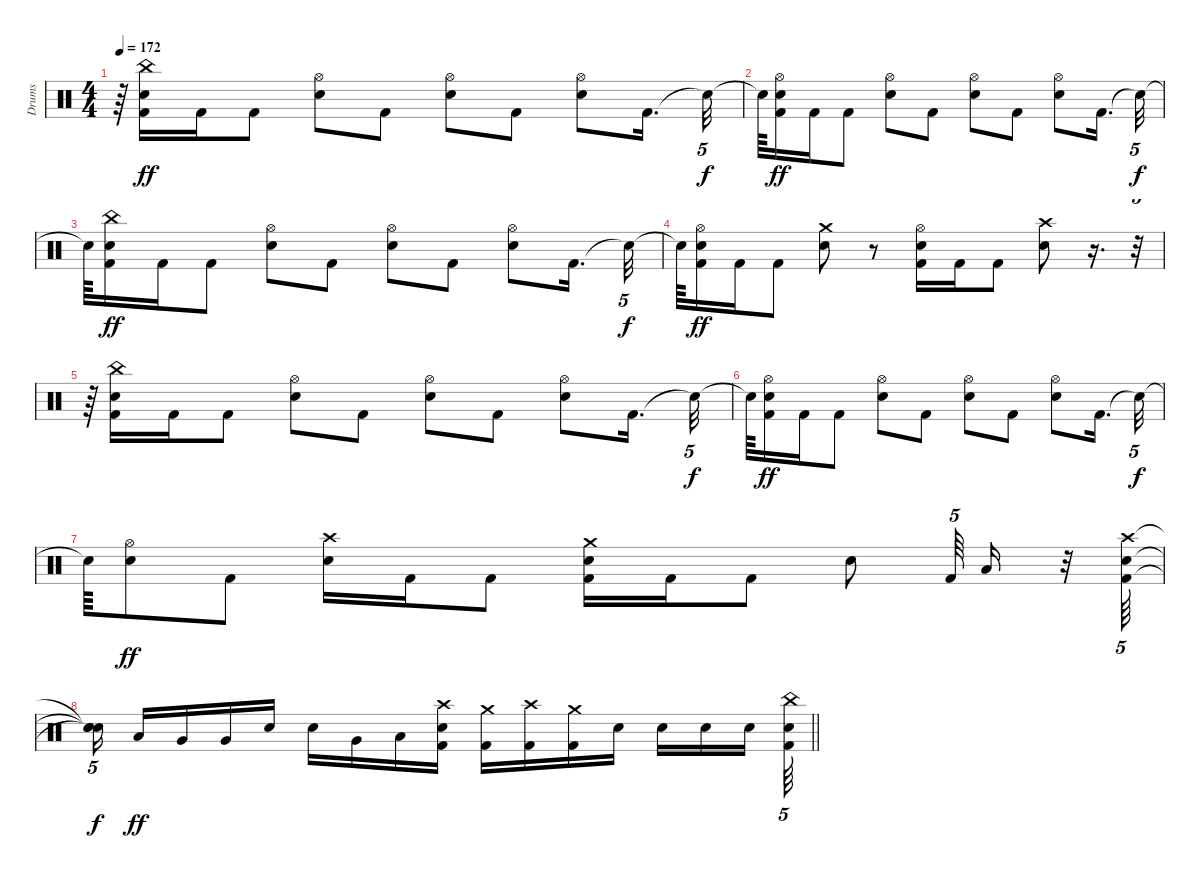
\track ("Drums" "Drums") {instrument percussion}
\staff {score}
\articulation defaults
\ts (4 4)
\tempo 172
\clef neutral
\ks c
r.64{dy f} ("China (hit)" "Kick (hit) 2" "Snare (hit) 2").16{dy ff} "Kick (hit) 2".16 "Kick (hit) 2".8 ("Hi-Hat (open)" "Snare (hit) 2").8 "Kick (hit) 2".8 ("Hi-Hat (open)" "Snare (hit) 2").8 "Kick (hit) 2".8 ("Hi-Hat (open)" "Snare (hit) 2").8 "Kick (hit) 2".16{d} "Snare (hit)"{t}.32{tu (5 4) dy f} |
"Snare (hit)"{t}.64 ("Hi-Hat (open)" "Kick (hit) 2" "Snare (hit) 2").16{dy ff} "Kick (hit) 2".16 "Kick (hit) 2".8 ("Hi-Hat (open)" "Snare (hit) 2").8 "Kick (hit) 2".8 ("Hi-Hat (open)" "Snare (hit) 2").8 "Kick (hit) 2".8 ("Hi-Hat (open)" "Snare (hit) 2").8 "Kick (hit) 2".16{d} "Snare (hit)"{t}.32{tu (5 4) dy f} |
"Snare (hit)"{t}.64 ("China (hit)" "Kick (hit) 2" "Snare (hit) 2").16{dy ff} "Kick (hit) 2".16 "Kick (hit) 2".8 ("Hi-Hat (open)" "Snare (hit) 2").8 "Kick (hit) 2".8 ("Hi-Hat (open)" "Snare (hit) 2").8 "Kick (hit) 2".8 ("Hi-Hat (open)" "Snare (hit) 2").8 "Kick (hit) 2".16{d} "Snare (hit)"{t}.32{tu (5 4) dy f} |
"Snare (hit)"{t}.64 ("Hi-Hat (open)" "Kick (hit) 2" "Snare (hit) 2").16{dy ff} "Kick (hit) 2".16 "Kick (hit) 2".8 ("Crash medium (hit)" "Snare (hit) 2").8 r.8 ("Hi-Hat (open)" "Kick (hit) 2" "Snare (hit) 2").16 "Kick (hit) 2".16 "Kick (hit) 2".8 ("Crash high (hit)" "Snare (hit) 2").8 r.16{d} r.32{tu (5 4)} |
r.64 ("China (hit)" "Kick (hit) 2" "Snare (hit) 2").16 "Kick (hit) 2".16 "Kick (hit) 2".8 ("Hi-Hat (open)" "Snare (hit) 2").8 "Kick (hit) 2".8 ("Hi-Hat (open)" "Snare (hit) 2").8 "Kick (hit) 2".8 ("Hi-Hat (open)" "Snare (hit) 2").8 "Kick (hit) 2".16{d} "Snare (hit)"{t}.32{tu (5 4) dy f} |
"Snare (hit)"{t}.64 ("Hi-Hat (open)" "Kick (hit) 2" "Snare (hit) 2").16{dy ff} "Kick (hit) 2".16 "Kick (hit) 2".8 ("Hi-Hat (open)" "Snare (hit) 2").8 "Kick (hit) 2".8 ("Hi-Hat (open)" "Snare (hit) 2").8 "Kick (hit) 2".8 ("Hi-Hat (open)" "Snare (hit) 2").8 "Kick (hit) 2".16{d} "Snare (hit)"{t}.32{tu (5 4) dy f} |
"Snare (hit)"{t}.64 ("Hi-Hat (open)" "Snare (hit) 2").8{dy ff} "Kick (hit) 2".8 ("Crash high (hit)" "Snare (hit) 2").16 "Kick (hit) 2".16 "Kick (hit) 2".8 ("Crash medium (hit)" "Kick (hit) 2" "Snare (hit) 2").16 "Kick (hit) 2".16 "Kick (hit) 2".8 "Snare (hit) 2".8 "Kick (hit) 2".64{tu (5 4) beam splitsecondary} "Low Tom (hit)".16 r.32 ("Crash high (hit)" "Kick (hit) 2" "Snare (hit) 2").64{tu (5 4)} |
\barLineRight lightlight
("Snare (hit)"{t} "Snare (hit)"{t} "Snare (hit)"{t}).16{tu (5 4) dy f beam splitsecondary} "Low Tom (hit)".16{dy ff} "Very Low Tom (hit)".16 "Very Low Tom (hit)".16 "Snare (hit) 2".16 "Snare (hit) 2".16 "Very Low Tom (hit)".16 "Low Floor Tom (hit)".16 ("Crash high (hit)" "Kick (hit) 2" "Snare (hit) 2").16 ("Crash medium (hit)" "Kick (hit) 2").16 ("Crash high (hit)" "Kick (hit) 2").16 ("Crash medium (hit)" "Kick (hit) 2").16 "Snare (hit) 2".16 "Snare (hit) 2".16 "Snare (hit) 2".16 "Snare (hit) 2".16{beam splitsecondary} ("China (hit)" "Kick (hit) 2" "Snare (hit) 2").64{tu (5 4)}
